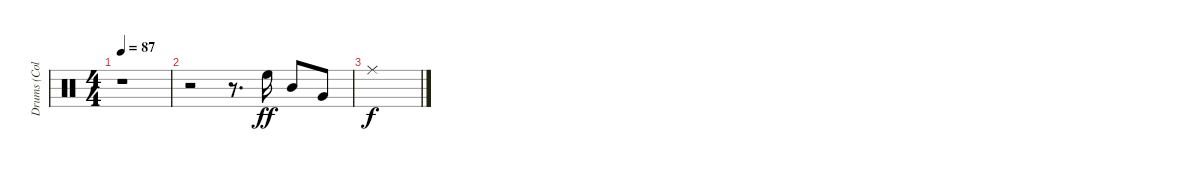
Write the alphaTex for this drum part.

\track ("Drums (Collins)" "Drums (Col") {instrument percussion}
\staff {score}
\articulation defaults
\ts (4 4)
\tempo 87
\clef neutral
\ks c
r.1{dy ff} |
r.2 r.8{d} "High Floor Tom (hit)".16 "Mid Tom (hit)".8 "Very Low Tom (hit)".8 |
"Ride (middle)".1{dy f}
